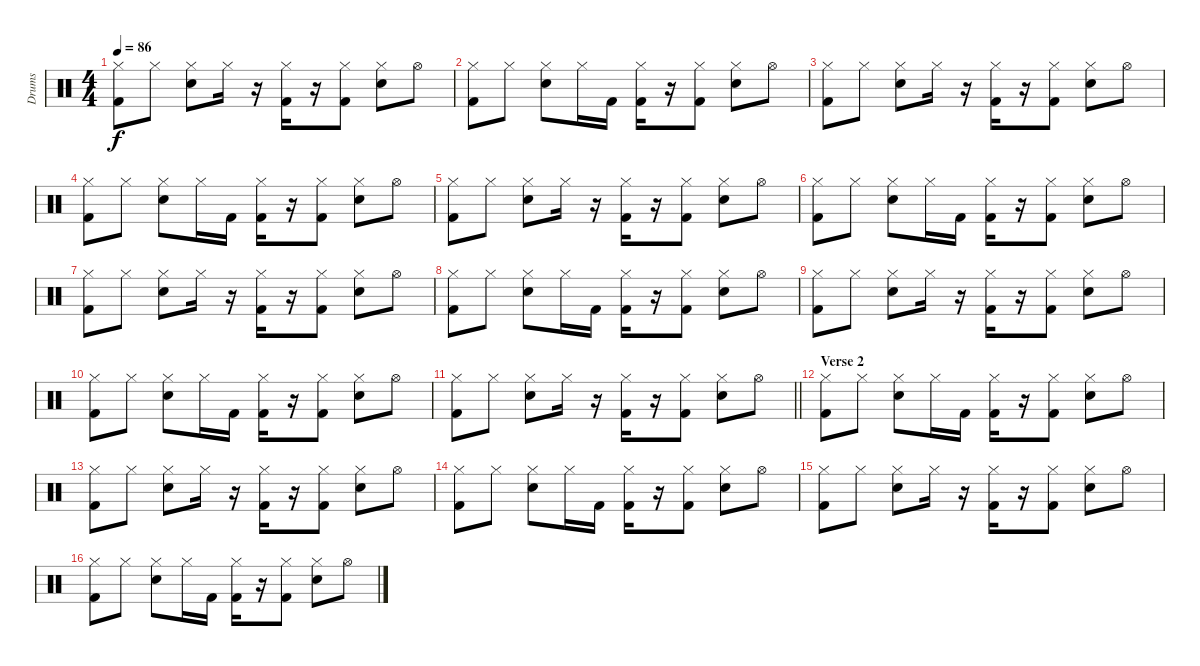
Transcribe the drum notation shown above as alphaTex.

\track ("Drums" "Drums") {instrument percussion}
\staff {score}
\articulation defaults
\ts (4 4)
\tempo 86
\clef neutral
\ks c
("Kick (hit) 2" "Hi-Hat (closed)").8{dy f} "Hi-Hat (closed)".8 ("Snare (hit) 2" "Hi-Hat (closed)").8 "Hi-Hat (closed)".16 r.16 ("Kick (hit) 2" "Hi-Hat (closed)").16 r.16 ("Kick (hit) 2" "Hi-Hat (closed)").8 ("Snare (hit) 2" "Hi-Hat (closed)").8 "Hi-Hat (open)".8 |
("Kick (hit) 2" "Hi-Hat (closed)").8 "Hi-Hat (closed)".8 ("Snare (hit) 2" "Hi-Hat (closed)").8 "Hi-Hat (closed)".16 "Kick (hit) 2".16 ("Kick (hit) 2" "Hi-Hat (closed)").16 r.16 ("Kick (hit) 2" "Hi-Hat (closed)").8 ("Snare (hit) 2" "Hi-Hat (closed)").8 "Hi-Hat (open)".8 |
("Kick (hit) 2" "Hi-Hat (closed)").8 "Hi-Hat (closed)".8 ("Snare (hit) 2" "Hi-Hat (closed)").8 "Hi-Hat (closed)".16 r.16 ("Kick (hit) 2" "Hi-Hat (closed)").16 r.16 ("Kick (hit) 2" "Hi-Hat (closed)").8 ("Snare (hit) 2" "Hi-Hat (closed)").8 "Hi-Hat (open)".8 |
("Kick (hit) 2" "Hi-Hat (closed)").8 "Hi-Hat (closed)".8 ("Snare (hit) 2" "Hi-Hat (closed)").8 "Hi-Hat (closed)".16 "Kick (hit) 2".16 ("Kick (hit) 2" "Hi-Hat (closed)").16 r.16 ("Kick (hit) 2" "Hi-Hat (closed)").8 ("Snare (hit) 2" "Hi-Hat (closed)").8 "Hi-Hat (open)".8 |
("Kick (hit) 2" "Hi-Hat (closed)").8 "Hi-Hat (closed)".8 ("Snare (hit) 2" "Hi-Hat (closed)").8 "Hi-Hat (closed)".16 r.16 ("Kick (hit) 2" "Hi-Hat (closed)").16 r.16 ("Kick (hit) 2" "Hi-Hat (closed)").8 ("Snare (hit) 2" "Hi-Hat (closed)").8 "Hi-Hat (open)".8 |
("Kick (hit) 2" "Hi-Hat (closed)").8 "Hi-Hat (closed)".8 ("Snare (hit) 2" "Hi-Hat (closed)").8 "Hi-Hat (closed)".16 "Kick (hit) 2".16 ("Kick (hit) 2" "Hi-Hat (closed)").16 r.16 ("Kick (hit) 2" "Hi-Hat (closed)").8 ("Snare (hit) 2" "Hi-Hat (closed)").8 "Hi-Hat (open)".8 |
("Kick (hit) 2" "Hi-Hat (closed)").8 "Hi-Hat (closed)".8 ("Snare (hit) 2" "Hi-Hat (closed)").8 "Hi-Hat (closed)".16 r.16 ("Kick (hit) 2" "Hi-Hat (closed)").16 r.16 ("Kick (hit) 2" "Hi-Hat (closed)").8 ("Snare (hit) 2" "Hi-Hat (closed)").8 "Hi-Hat (open)".8 |
("Kick (hit) 2" "Hi-Hat (closed)").8 "Hi-Hat (closed)".8 ("Snare (hit) 2" "Hi-Hat (closed)").8 "Hi-Hat (closed)".16 "Kick (hit) 2".16 ("Kick (hit) 2" "Hi-Hat (closed)").16 r.16 ("Kick (hit) 2" "Hi-Hat (closed)").8 ("Snare (hit) 2" "Hi-Hat (closed)").8 "Hi-Hat (open)".8 |
("Kick (hit) 2" "Hi-Hat (closed)").8 "Hi-Hat (closed)".8 ("Snare (hit) 2" "Hi-Hat (closed)").8 "Hi-Hat (closed)".16 r.16 ("Kick (hit) 2" "Hi-Hat (closed)").16 r.16 ("Kick (hit) 2" "Hi-Hat (closed)").8 ("Snare (hit) 2" "Hi-Hat (closed)").8 "Hi-Hat (open)".8 |
("Kick (hit) 2" "Hi-Hat (closed)").8 "Hi-Hat (closed)".8 ("Snare (hit) 2" "Hi-Hat (closed)").8 "Hi-Hat (closed)".16 "Kick (hit) 2".16 ("Kick (hit) 2" "Hi-Hat (closed)").16 r.16 ("Kick (hit) 2" "Hi-Hat (closed)").8 ("Snare (hit) 2" "Hi-Hat (closed)").8 "Hi-Hat (open)".8 |
\barLineRight lightlight
("Kick (hit) 2" "Hi-Hat (closed)").8 "Hi-Hat (closed)".8 ("Snare (hit) 2" "Hi-Hat (closed)").8 "Hi-Hat (closed)".16 r.16 ("Kick (hit) 2" "Hi-Hat (closed)").16 r.16 ("Kick (hit) 2" "Hi-Hat (closed)").8 ("Snare (hit) 2" "Hi-Hat (closed)").8 "Hi-Hat (open)".8 |
\section ("" "Verse 2")
("Kick (hit) 2" "Hi-Hat (closed)").8 "Hi-Hat (closed)".8 ("Snare (hit) 2" "Hi-Hat (closed)").8 "Hi-Hat (closed)".16 "Kick (hit) 2".16 ("Kick (hit) 2" "Hi-Hat (closed)").16 r.16 ("Kick (hit) 2" "Hi-Hat (closed)").8 ("Snare (hit) 2" "Hi-Hat (closed)").8 "Hi-Hat (open)".8 |
("Kick (hit) 2" "Hi-Hat (closed)").8 "Hi-Hat (closed)".8 ("Snare (hit) 2" "Hi-Hat (closed)").8 "Hi-Hat (closed)".16 r.16 ("Kick (hit) 2" "Hi-Hat (closed)").16 r.16 ("Kick (hit) 2" "Hi-Hat (closed)").8 ("Snare (hit) 2" "Hi-Hat (closed)").8 "Hi-Hat (open)".8 |
("Kick (hit) 2" "Hi-Hat (closed)").8 "Hi-Hat (closed)".8 ("Snare (hit) 2" "Hi-Hat (closed)").8 "Hi-Hat (closed)".16 "Kick (hit) 2".16 ("Kick (hit) 2" "Hi-Hat (closed)").16 r.16 ("Kick (hit) 2" "Hi-Hat (closed)").8 ("Snare (hit) 2" "Hi-Hat (closed)").8 "Hi-Hat (open)".8 |
("Kick (hit) 2" "Hi-Hat (closed)").8 "Hi-Hat (closed)".8 ("Snare (hit) 2" "Hi-Hat (closed)").8 "Hi-Hat (closed)".16 r.16 ("Kick (hit) 2" "Hi-Hat (closed)").16 r.16 ("Kick (hit) 2" "Hi-Hat (closed)").8 ("Snare (hit) 2" "Hi-Hat (closed)").8 "Hi-Hat (open)".8 |
("Kick (hit) 2" "Hi-Hat (closed)").8 "Hi-Hat (closed)".8 ("Snare (hit) 2" "Hi-Hat (closed)").8 "Hi-Hat (closed)".16 "Kick (hit) 2".16 ("Kick (hit) 2" "Hi-Hat (closed)").16 r.16 ("Kick (hit) 2" "Hi-Hat (closed)").8 ("Snare (hit) 2" "Hi-Hat (closed)").8 "Hi-Hat (open)".8
